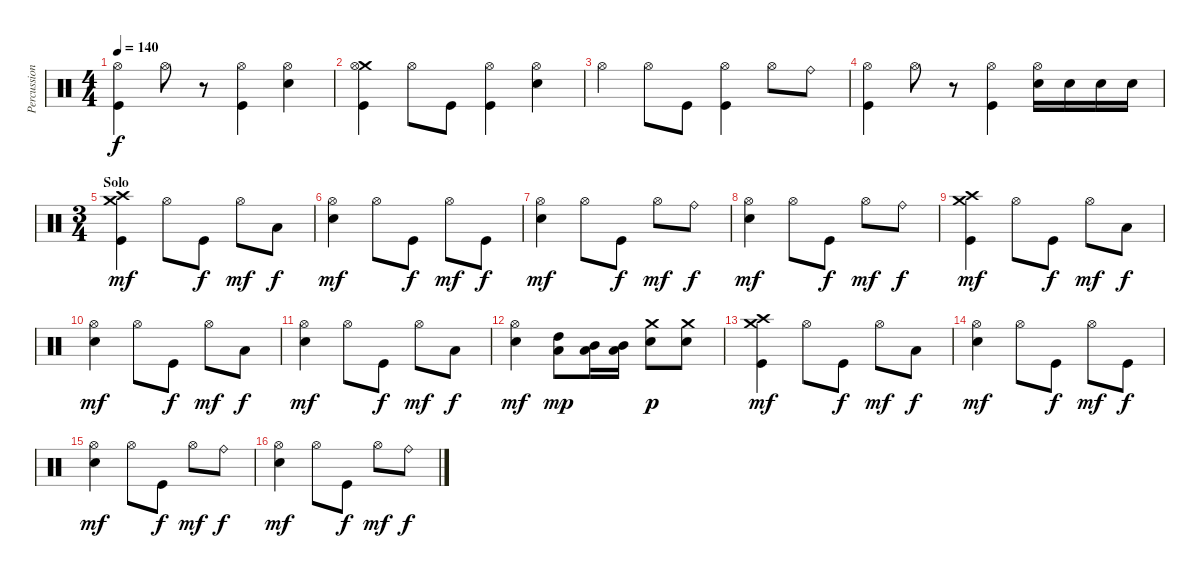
\track ("Percussion" "Percussion") {instrument percussion}
\staff {score}
\articulation defaults
\ts (4 4)
\tempo 140
\clef neutral
\ks c
("Hi-Hat (open)" "Kick (hit)").4{dy f} "Hi-Hat (open)".8 r.8 ("Hi-Hat (open)" "Kick (hit)").4 ("Hi-Hat (open)" "Electric Snare (hit)").4 |
("Crash medium (hit)" "Hi-Hat (open)" "Kick (hit)").4 "Hi-Hat (open)".8 "Kick (hit)".8 ("Hi-Hat (open)" "Kick (hit)").4 ("Hi-Hat (open)" "Electric Snare (hit)").4 |
"Hi-Hat (open)".4 "Hi-Hat (open)".8 "Kick (hit)".8 ("Hi-Hat (open)" "Kick (hit)").4 "Hi-Hat (open)".8 "Ride (bell)".8 |
("Hi-Hat (open)" "Kick (hit)").4 "Hi-Hat (open)".8 r.8 ("Hi-Hat (open)" "Kick (hit)").4 ("Hi-Hat (open)" "Electric Snare (hit)").16 "Electric Snare (hit)".16 "Electric Snare (hit)".16 "Electric Snare (hit)".16 |
\ts (3 4)
\section ("" "Solo")
("Kick (hit)" "Crash high (hit)" "Crash medium (hit)").4{dy mf} "Hi-Hat (open)".8 "Kick (hit)".8{dy f} "Hi-Hat (open)".8{dy mf} "Low Floor Tom (hit)".8{dy f} |
("Electric Snare (hit)" "Hi-Hat (open)").4{dy mf} "Hi-Hat (open)".8 "Kick (hit)".8{dy f} "Hi-Hat (open)".8{dy mf} "Kick (hit)".8{dy f} |
("Electric Snare (hit)" "Hi-Hat (open)").4{dy mf} "Hi-Hat (open)".8 "Kick (hit)".8{dy f} "Hi-Hat (open)".8{dy mf} "Ride (bell)".8{dy f} |
("Electric Snare (hit)" "Hi-Hat (open)").4{dy mf} "Hi-Hat (open)".8 "Kick (hit)".8{dy f} "Hi-Hat (open)".8{dy mf} "Ride (bell)".8{dy f} |
("Kick (hit)" "Crash high (hit)" "Crash medium (hit)").4{dy mf} "Hi-Hat (open)".8 "Kick (hit)".8{dy f} "Hi-Hat (open)".8{dy mf} "Low Floor Tom (hit)".8{dy f} |
("Electric Snare (hit)" "Hi-Hat (open)").4{dy mf} "Hi-Hat (open)".8 "Kick (hit)".8{dy f} "Hi-Hat (open)".8{dy mf} "Low Floor Tom (hit)".8{dy f} |
("Electric Snare (hit)" "Hi-Hat (open)").4{dy mf} "Hi-Hat (open)".8 "Kick (hit)".8{dy f} "Hi-Hat (open)".8{dy mf} "Low Floor Tom (hit)".8{dy f} |
("Electric Snare (hit)" "Hi-Hat (open)").4{dy mf} ("Low Tom (hit)" "High Tom (hit)").8{dy mp} ("Low Tom (hit)" "Mid Tom (hit)").16 ("Low Tom (hit)" "Mid Tom (hit)").16 ("Electric Snare (hit)" "Crash medium (hit)").8{dy p} ("Electric Snare (hit)" "Crash medium (hit)").8 |
("Kick (hit)" "Crash high (hit)" "Crash medium (hit)").4{dy mf} "Hi-Hat (open)".8 "Kick (hit)".8{dy f} "Hi-Hat (open)".8{dy mf} "Low Floor Tom (hit)".8{dy f} |
("Electric Snare (hit)" "Hi-Hat (open)").4{dy mf} "Hi-Hat (open)".8 "Kick (hit)".8{dy f} "Hi-Hat (open)".8{dy mf} "Kick (hit)".8{dy f} |
("Electric Snare (hit)" "Hi-Hat (open)").4{dy mf} "Hi-Hat (open)".8 "Kick (hit)".8{dy f} "Hi-Hat (open)".8{dy mf} "Ride (bell)".8{dy f} |
("Electric Snare (hit)" "Hi-Hat (open)").4{dy mf} "Hi-Hat (open)".8 "Kick (hit)".8{dy f} "Hi-Hat (open)".8{dy mf} "Ride (bell)".8{dy f}
